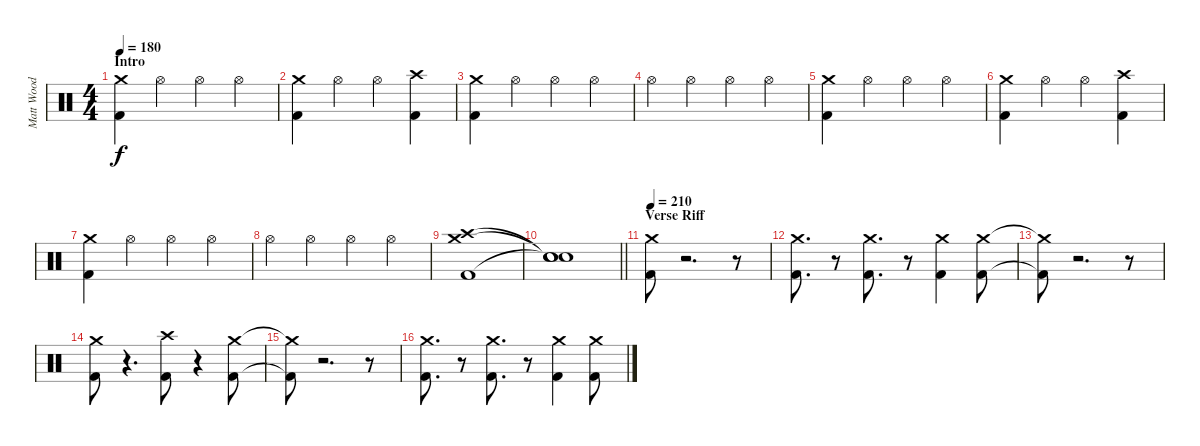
\track ("Matt Wood" "Matt Wood") {instrument percussion}
\staff {score}
\articulation defaults
\ts (4 4)
\section ("" "Intro")
\tempo 180
\clef neutral
\ks c
("Crash medium (hit)" "Kick (hit) 2").4{dy f} "Hi-Hat (open)".4 "Hi-Hat (open)".4 "Hi-Hat (open)".4 |
("Crash medium (hit)" "Kick (hit) 2").4 "Hi-Hat (open)".4 "Hi-Hat (open)".4 ("Crash high (hit)" "Kick (hit) 2").4 |
("Crash medium (hit)" "Kick (hit) 2").4 "Hi-Hat (open)".4 "Hi-Hat (open)".4 "Hi-Hat (open)".4 |
"Hi-Hat (open)".4 "Hi-Hat (open)".4 "Hi-Hat (open)".4 "Hi-Hat (open)".4 |
("Crash medium (hit)" "Kick (hit) 2").4 "Hi-Hat (open)".4 "Hi-Hat (open)".4 "Hi-Hat (open)".4 |
("Crash medium (hit)" "Kick (hit) 2").4 "Hi-Hat (open)".4 "Hi-Hat (open)".4 ("Crash high (hit)" "Kick (hit) 2").4 |
("Crash medium (hit)" "Kick (hit) 2").4 "Hi-Hat (open)".4 "Hi-Hat (open)".4 "Hi-Hat (open)".4 |
"Hi-Hat (open)".4 "Hi-Hat (open)".4 "Hi-Hat (open)".4 "Hi-Hat (open)".4 |
("Crash medium (hit)" "Crash high (hit)" "Kick (hit) 2").1 |
\barLineRight lightlight
("Snare (hit)"{t} "Snare (hit)"{t} "Snare (hit)"{t}).1 |
\section ("" "Verse Riff")
\tempo 210
("Crash medium (hit)" "Kick (hit) 2").8 r.2{d} r.8 |
("Crash medium (hit)" "Kick (hit) 2").8{d} r.8 ("Crash medium (hit)" "Kick (hit) 2").8{d} r.8 ("Crash medium (hit)" "Kick (hit) 2").4 ("Crash medium (hit)" "Kick (hit) 2").8 |
("Crash medium (hit)"{t} "Kick (hit) 2"{t}).8 r.2{d} r.8 |
("Crash medium (hit)" "Kick (hit) 2").8 r.4{d} ("Crash high (hit)" "Kick (hit) 2").8 r.4 ("Crash medium (hit)" "Kick (hit) 2").8 |
("Crash medium (hit)"{t} "Kick (hit) 2"{t}).8 r.2{d} r.8 |
("Crash medium (hit)" "Kick (hit) 2").8{d} r.8 ("Crash medium (hit)" "Kick (hit) 2").8{d} r.8 ("Crash medium (hit)" "Kick (hit) 2").4 ("Crash medium (hit)" "Kick (hit) 2").8
